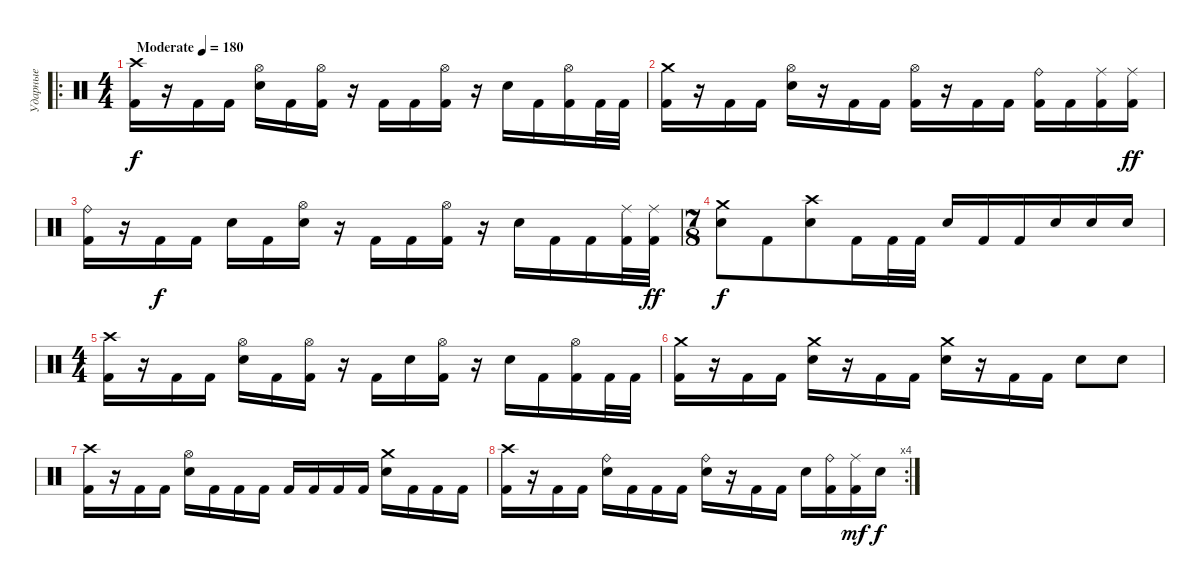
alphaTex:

\track ("Ударные" "Ударные") {instrument percussion}
\staff {score}
\articulation defaults
\ro
\ts (4 4)
\tempo (180 "Moderate")
\clef neutral
\ks c
("Crash high (hit)" "Kick (hit) 2").16{dy f} r.16 "Kick (hit) 2".16 "Kick (hit) 2".16 ("Hi-Hat (open)" "Electric Snare (hit)").16 "Kick (hit) 2".16 ("Hi-Hat (open)" "Kick (hit) 2").16 r.16 "Kick (hit) 2".16 "Kick (hit) 2".16 ("Hi-Hat (open)" "Kick (hit) 2").16 r.16 "Electric Snare (hit)".16 "Kick (hit) 2".16 ("Hi-Hat (open)" "Kick (hit) 2").16 "Kick (hit) 2".32 "Kick (hit) 2".32 |
("Crash medium (hit)" "Kick (hit) 2").16 r.16 "Kick (hit) 2".16 "Kick (hit) 2".16 ("Hi-Hat (open)" "Electric Snare (hit)").16 r.16 "Kick (hit) 2".16 "Kick (hit) 2".16 ("Hi-Hat (open)" "Kick (hit) 2").16 r.16 "Kick (hit) 2".16 "Kick (hit) 2".16 ("Ride (bell)" "Kick (hit) 2").16 "Kick (hit) 2".16 ("Ride (middle)" "Kick (hit) 2").16 ("Ride (middle)" "Kick (hit) 2").16{dy ff} |
("Ride (bell)" "Kick (hit) 2").16 r.16 "Kick (hit) 2".16{dy f} "Kick (hit) 2".16 "Electric Snare (hit)".16 "Kick (hit) 2".16 ("Hi-Hat (open)" "Electric Snare (hit)").16 r.16 "Kick (hit) 2".16 "Kick (hit) 2".16 ("Hi-Hat (open)" "Kick (hit) 2").16 r.16 "Electric Snare (hit)".16 "Kick (hit) 2".16 "Kick (hit) 2".16 ("Ride (middle)" "Kick (hit) 2").32 ("Ride (middle)" "Kick (hit) 2").32{dy ff} |
\ts (7 8)
("Crash medium (hit)" "Electric Snare (hit)").8{dy f} "Kick (hit) 2".8 ("Crash high (hit)" "Electric Snare (hit)").8 "Kick (hit) 2".16 "Kick (hit) 2".32 "Kick (hit) 2".32 "Electric Snare (hit)".16 "Kick (hit) 2".16 "Kick (hit) 2".16 "Electric Snare (hit)".16 "Electric Snare (hit)".16 "Electric Snare (hit)".16 |
\ts (4 4)
("Crash high (hit)" "Kick (hit) 2").16 r.16 "Kick (hit) 2".16 "Kick (hit) 2".16 ("Hi-Hat (open)" "Electric Snare (hit)").16 "Kick (hit) 2".16 ("Hi-Hat (open)" "Kick (hit) 2").16 r.16 "Kick (hit) 2".16 "Snare (hit)".16 ("Hi-Hat (open)" "Kick (hit) 2").16 r.16 "Electric Snare (hit)".16 "Kick (hit) 2".16 ("Hi-Hat (open)" "Kick (hit) 2").16 "Kick (hit) 2".32 "Kick (hit) 2".32 |
("Crash medium (hit)" "Kick (hit) 2").16 r.16 "Kick (hit) 2".16 "Kick (hit) 2".16 ("Crash medium (hit)" "Electric Snare (hit)").16 r.16 "Kick (hit) 2".16 "Kick (hit) 2".16 ("Crash medium (hit)" "Electric Snare (hit)").16 r.16 "Kick (hit) 2".16 "Kick (hit) 2".16 "Electric Snare (hit)".8 "Electric Snare (hit)".8 |
("Crash high (hit)" "Kick (hit) 2").16 r.16 "Kick (hit) 2".16 "Kick (hit) 2".16 ("Hi-Hat (open)" "Electric Snare (hit)").16 "Kick (hit) 2".16 "Kick (hit) 2".16 "Kick (hit) 2".16 "Kick (hit) 2".16 "Kick (hit) 2".16 "Kick (hit) 2".16 "Kick (hit) 2".16 ("Crash medium (hit)" "Electric Snare (hit)").16 "Kick (hit) 2".16 "Kick (hit) 2".16 "Kick (hit) 2".16 |
\rc 4
("Crash high (hit)" "Kick (hit) 2").16 r.16 "Kick (hit) 2".16 "Kick (hit) 2".16 ("Ride (bell)" "Electric Snare (hit)").16 "Kick (hit) 2".16 "Kick (hit) 2".16 "Kick (hit) 2".16 ("Ride (bell)" "Electric Snare (hit)").16 r.16 "Kick (hit) 2".16 "Kick (hit) 2".16 "Electric Snare (hit)".16 ("Ride (bell)" "Kick (hit) 2").16 ("Ride (middle)" "Kick (hit) 2").16{dy mf} "Electric Snare (hit)".16{dy f}
